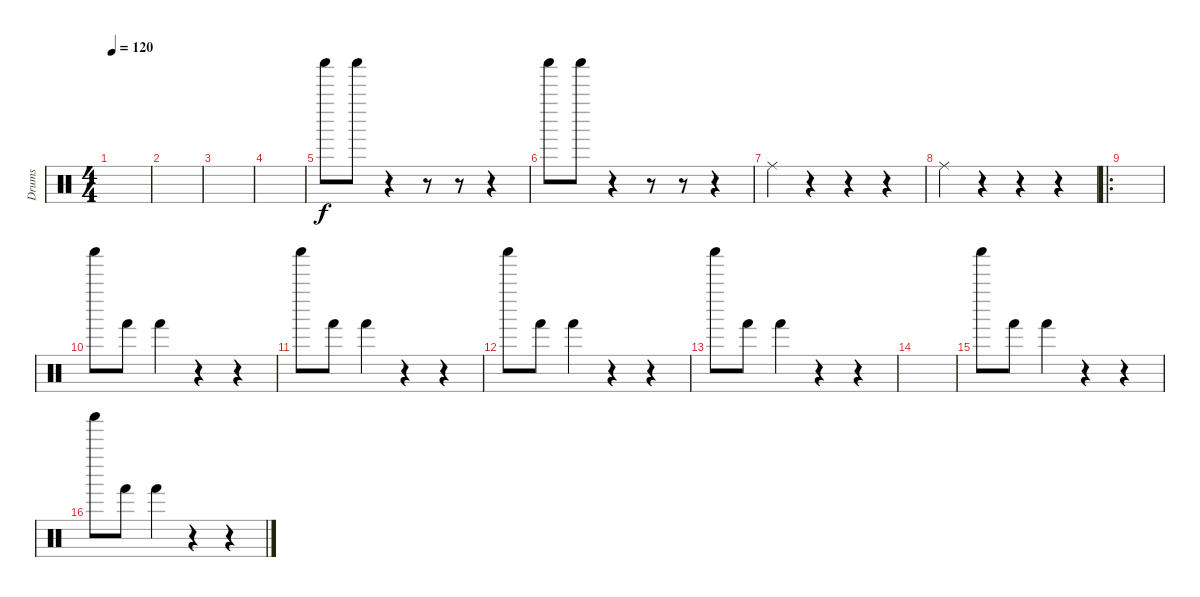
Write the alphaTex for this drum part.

\track ("Drums" "Drums") {instrument percussion}
\staff {score}
\articulation defaults
\ts (4 4)
\tempo 120
\clef neutral
\ks c
|
|
|
|
"Shaker (hit)".8 "Shaker (hit)".8 r.4 r.8 r.8 r.4 |
"Shaker (hit)".8 "Shaker (hit)".8 r.4 r.8 r.8 r.4 |
"Ride (middle)".4 r.4 r.4 r.4 |
"Ride (middle)".4 r.4 r.4 r.4 |
\ro
|
"Shaker (hit)".8 "Hand (hit)".8 "Hand (hit)".4 r.4 r.4 |
"Shaker (hit)".8 "Hand (hit)".8 "Hand (hit)".4 r.4 r.4 |
"Shaker (hit)".8 "Hand (hit)".8 "Hand (hit)".4 r.4 r.4 |
"Shaker (hit)".8 "Hand (hit)".8 "Hand (hit)".4 r.4 r.4 |
|
"Shaker (hit)".8 "Hand (hit)".8 "Hand (hit)".4 r.4 r.4 |
"Shaker (hit)".8 "Hand (hit)".8 "Hand (hit)".4 r.4 r.4
